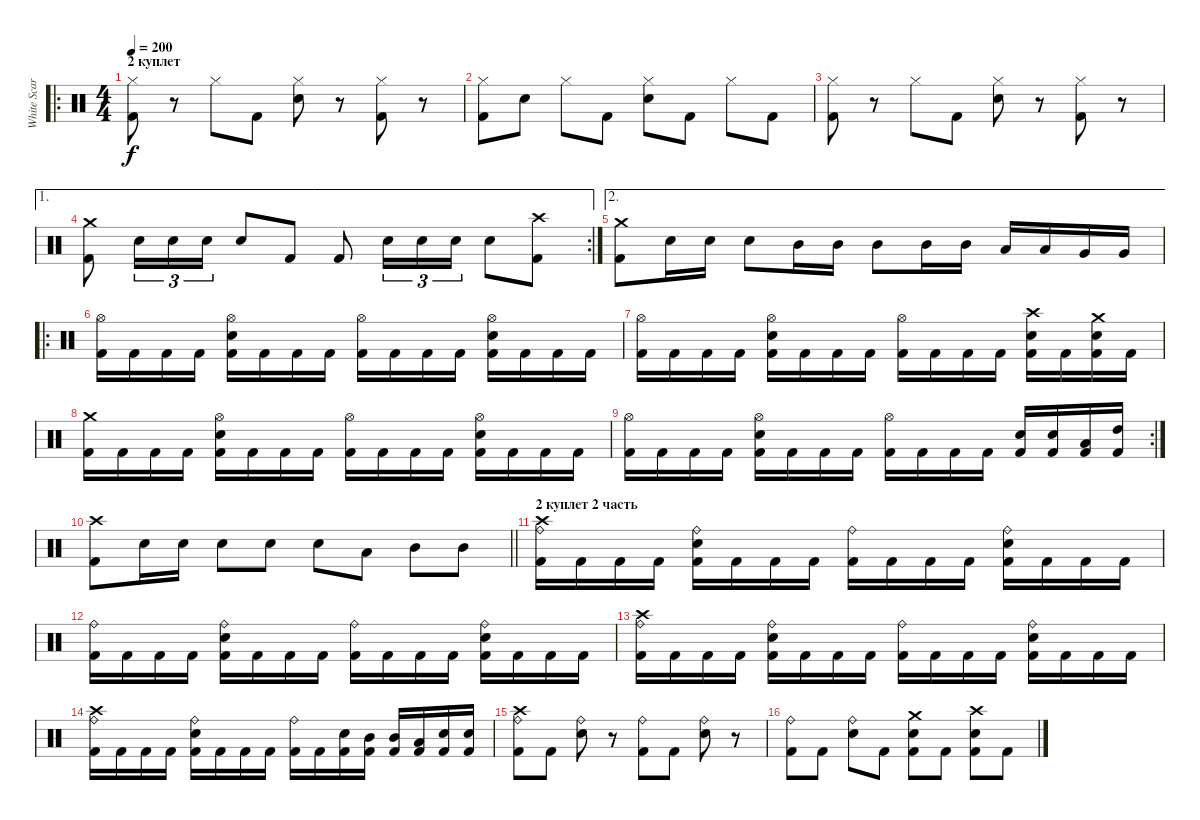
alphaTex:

\track ("White Scar" "White Scar") {instrument percussion}
\staff {score}
\articulation defaults
\ro
\ts (4 4)
\section ("" "2 куплет")
\tempo 200
\clef neutral
\ks c
("Hi-Hat (closed)" "Kick (hit) 2").8{dy f} r.8 "Hi-Hat (closed)".8 "Kick (hit) 2".8 ("Hi-Hat (closed)" "Snare (hit) 2").8 r.8 ("Hi-Hat (closed)" "Kick (hit) 2").8 r.8 |
("Hi-Hat (closed)" "Kick (hit) 2").8 "Snare (hit) 2".8 "Hi-Hat (closed)".8 "Kick (hit) 2".8 ("Hi-Hat (closed)" "Snare (hit) 2").8 "Kick (hit) 2".8 "Hi-Hat (closed)".8 "Kick (hit) 2".8 |
("Hi-Hat (closed)" "Kick (hit) 2").8 r.8 "Hi-Hat (closed)".8 "Kick (hit) 2".8 ("Hi-Hat (closed)" "Snare (hit) 2").8 r.8 ("Hi-Hat (closed)" "Kick (hit) 2").8 r.8 |
\ae 1
\rc 2
("Crash medium (hit)" "Kick (hit) 2").8 "Snare (hit) 2".16{tu (3 2)} "Snare (hit) 2".16{tu (3 2)} "Snare (hit) 2".16{tu (3 2)} "Snare (hit) 2".8 "Kick (hit) 2".8 "Kick (hit) 2".8 "Snare (hit) 2".16{tu (3 2)} "Snare (hit) 2".16{tu (3 2)} "Snare (hit) 2".16{tu (3 2)} "Snare (hit) 2".8 ("Crash high (hit)" "Kick (hit) 2").8 |
\ae 2
("Crash medium (hit)" "Kick (hit) 2").8 "Snare (hit) 2".16 "Snare (hit) 2".16 "Snare (hit) 2".8 "Mid Tom (hit)".16 "Mid Tom (hit)".16 "Mid Tom (hit)".8 "Mid Tom (hit)".16 "Mid Tom (hit)".16 "Low Tom (hit)".16 "Low Tom (hit)".16 "Very Low Tom (hit)".16 "Very Low Tom (hit)".16 |
\ro
("Hi-Hat (open)" "Kick (hit) 2").16 "Kick (hit) 2".16 "Kick (hit) 2".16 "Kick (hit) 2".16 ("Hi-Hat (open)" "Snare (hit) 2" "Kick (hit) 2").16 "Kick (hit) 2".16 "Kick (hit) 2".16 "Kick (hit) 2".16 ("Hi-Hat (open)" "Kick (hit) 2").16 "Kick (hit) 2".16 "Kick (hit) 2".16 "Kick (hit) 2".16 ("Hi-Hat (open)" "Snare (hit) 2" "Kick (hit) 2").16 "Kick (hit) 2".16 "Kick (hit) 2".16 "Kick (hit) 2".16 |
("Hi-Hat (open)" "Kick (hit) 2").16 "Kick (hit) 2".16 "Kick (hit) 2".16 "Kick (hit) 2".16 ("Hi-Hat (open)" "Snare (hit) 2" "Kick (hit) 2").16 "Kick (hit) 2".16 "Kick (hit) 2".16 "Kick (hit) 2".16 ("Hi-Hat (open)" "Kick (hit) 2").16 "Kick (hit) 2".16 "Kick (hit) 2".16 "Kick (hit) 2".16 ("Crash high (hit)" "Snare (hit) 2" "Kick (hit) 2").16 "Kick (hit) 2".16 ("Crash medium (hit)" "Snare (hit) 2" "Kick (hit) 2").16 "Kick (hit) 2".16 |
("Crash medium (hit)" "Kick (hit) 2").16 "Kick (hit) 2".16 "Kick (hit) 2".16 "Kick (hit) 2".16 ("Hi-Hat (open)" "Snare (hit) 2" "Kick (hit) 2").16 "Kick (hit) 2".16 "Kick (hit) 2".16 "Kick (hit) 2".16 ("Hi-Hat (open)" "Kick (hit) 2").16 "Kick (hit) 2".16 "Kick (hit) 2".16 "Kick (hit) 2".16 ("Hi-Hat (open)" "Snare (hit) 2" "Kick (hit) 2").16 "Kick (hit) 2".16 "Kick (hit) 2".16 "Kick (hit) 2".16 |
\rc 2
("Hi-Hat (open)" "Kick (hit) 2").16 "Kick (hit) 2".16 "Kick (hit) 2".16 "Kick (hit) 2".16 ("Hi-Hat (open)" "Snare (hit) 2" "Kick (hit) 2").16 "Kick (hit) 2".16 "Kick (hit) 2".16 "Kick (hit) 2".16 ("Hi-Hat (open)" "Kick (hit) 2").16 "Kick (hit) 2".16 "Kick (hit) 2".16 "Kick (hit) 2".16 ("Snare (hit) 2" "Kick (hit) 2").16 ("Snare (hit) 2" "Kick (hit) 2").16 ("Low Tom (hit)" "Kick (hit) 2").16 ("High Tom (hit)" "Kick (hit) 2").16 |
\barLineRight lightlight
("Crash high (hit)" "Kick (hit) 2").8 "Snare (hit) 2".16 "Snare (hit) 2".16 "Snare (hit) 2".8 "Snare (hit) 2".8 "Snare (hit) 2".8 "Low Tom (hit)".8 "Mid Tom (hit)".8 "Mid Tom (hit)".8 |
\section ("" "2 куплет 2 часть")
("Crash high (hit)" "Ride (bell)" "Kick (hit) 2").16 "Kick (hit) 2".16 "Kick (hit) 2".16 "Kick (hit) 2".16 ("Ride (bell)" "Snare (hit) 2" "Kick (hit) 2").16 "Kick (hit) 2".16 "Kick (hit) 2".16 "Kick (hit) 2".16 ("Ride (bell)" "Kick (hit) 2").16 "Kick (hit) 2".16 "Kick (hit) 2".16 "Kick (hit) 2".16 ("Ride (bell)" "Snare (hit) 2" "Kick (hit) 2").16 "Kick (hit) 2".16 "Kick (hit) 2".16 "Kick (hit) 2".16 |
("Ride (bell)" "Kick (hit) 2").16 "Kick (hit) 2".16 "Kick (hit) 2".16 "Kick (hit) 2".16 ("Ride (bell)" "Snare (hit) 2" "Kick (hit) 2").16 "Kick (hit) 2".16 "Kick (hit) 2".16 "Kick (hit) 2".16 ("Ride (bell)" "Kick (hit) 2").16 "Kick (hit) 2".16 "Kick (hit) 2".16 "Kick (hit) 2".16 ("Ride (bell)" "Snare (hit) 2" "Kick (hit) 2").16 "Kick (hit) 2".16 "Kick (hit) 2".16 "Kick (hit) 2".16 |
("Crash high (hit)" "Ride (bell)" "Kick (hit) 2").16 "Kick (hit) 2".16 "Kick (hit) 2".16 "Kick (hit) 2".16 ("Ride (bell)" "Snare (hit) 2" "Kick (hit) 2").16 "Kick (hit) 2".16 "Kick (hit) 2".16 "Kick (hit) 2".16 ("Ride (bell)" "Kick (hit) 2").16 "Kick (hit) 2".16 "Kick (hit) 2".16 "Kick (hit) 2".16 ("Ride (bell)" "Snare (hit) 2" "Kick (hit) 2").16 "Kick (hit) 2".16 "Kick (hit) 2".16 "Kick (hit) 2".16 |
("Crash high (hit)" "Ride (bell)" "Kick (hit) 2").16 "Kick (hit) 2".16 "Kick (hit) 2".16 "Kick (hit) 2".16 ("Snare (hit) 2" "Ride (bell)" "Kick (hit) 2").16 "Kick (hit) 2".16 "Kick (hit) 2".16 "Kick (hit) 2".16 ("Ride (bell)" "Kick (hit) 2").16 "Kick (hit) 2".16 ("Snare (hit) 2" "Kick (hit) 2").16 ("Mid Tom (hit)" "Kick (hit) 2").16 ("Mid Tom (hit)" "Kick (hit) 2").16 ("Low Tom (hit)" "Kick (hit) 2").16 ("Snare (hit) 2" "Kick (hit) 2").16 ("Snare (hit) 2" "Kick (hit) 2").16 |
("Ride (bell)" "Crash high (hit)" "Kick (hit) 2").8 "Kick (hit) 2".8 ("Ride (bell)" "Snare (hit) 2").8 r.8 ("Ride (bell)" "Kick (hit) 2").8 "Kick (hit) 2".8 ("Ride (bell)" "Snare (hit) 2").8 r.8 |
("Ride (bell)" "Kick (hit) 2").8 "Kick (hit) 2".8 ("Ride (bell)" "Snare (hit) 2").8 "Kick (hit) 2".8 ("Crash medium (hit)" "Snare (hit) 2" "Kick (hit) 2").8 "Kick (hit) 2".8 ("Crash high (hit)" "Snare (hit) 2" "Kick (hit) 2").8 "Kick (hit) 2".8
